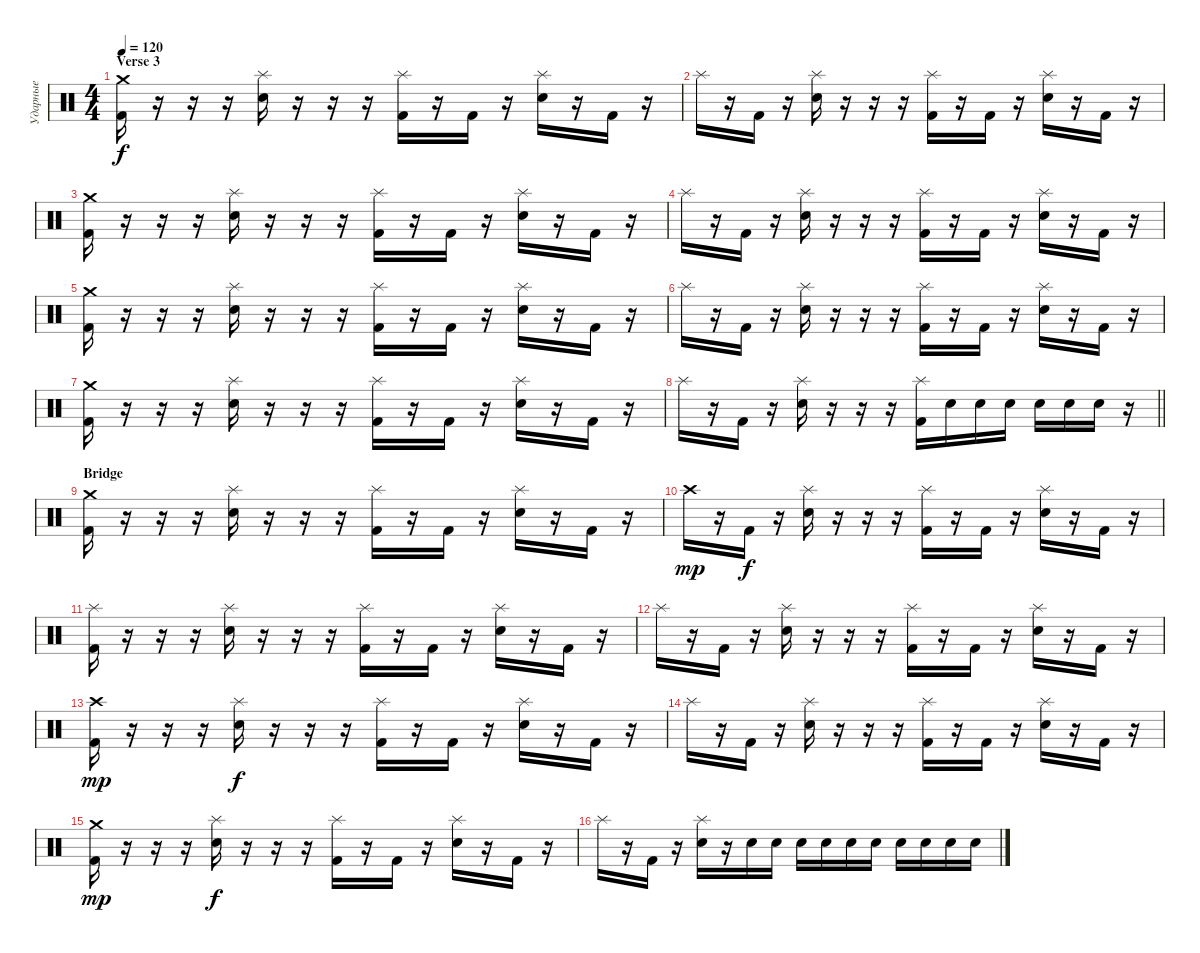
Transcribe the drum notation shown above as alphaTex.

\track ("Ударные" "Ударные") {instrument percussion}
\staff {score}
\articulation defaults
\ts (4 4)
\section ("" "Verse 3")
\tempo 120
\clef neutral
\ks c
("Kick (hit) 2" "Crash medium (hit)").16{dy f volume 12} r.16 r.16 r.16 ("Splash (hit)" "Snare (hit) 2").16 r.16 r.16 r.16 ("Kick (hit) 2" "Splash (hit)").16 r.16 "Kick (hit) 2".16 r.16 ("Splash (hit)" "Snare (hit) 2").16 r.16 "Kick (hit) 2".16 r.16 |
"Splash (hit)".16 r.16 "Kick (hit) 2".16 r.16 ("Splash (hit)" "Snare (hit) 2").16 r.16 r.16 r.16 ("Kick (hit) 2" "Splash (hit)").16 r.16 "Kick (hit) 2".16 r.16 ("Splash (hit)" "Snare (hit) 2").16 r.16 "Kick (hit) 2".16 r.16 |
("Kick (hit) 2" "Crash medium (hit)").16 r.16 r.16 r.16 ("Splash (hit)" "Snare (hit) 2").16 r.16 r.16 r.16 ("Kick (hit) 2" "Splash (hit)").16 r.16 "Kick (hit) 2".16 r.16 ("Splash (hit)" "Snare (hit) 2").16 r.16 "Kick (hit) 2".16 r.16 |
"Splash (hit)".16 r.16 "Kick (hit) 2".16 r.16 ("Splash (hit)" "Snare (hit) 2").16 r.16 r.16 r.16 ("Kick (hit) 2" "Splash (hit)").16 r.16 "Kick (hit) 2".16 r.16 ("Splash (hit)" "Snare (hit) 2").16 r.16 "Kick (hit) 2".16 r.16 |
("Kick (hit) 2" "Crash medium (hit)").16 r.16 r.16 r.16 ("Splash (hit)" "Snare (hit) 2").16 r.16 r.16 r.16 ("Kick (hit) 2" "Splash (hit)").16 r.16 "Kick (hit) 2".16 r.16 ("Splash (hit)" "Snare (hit) 2").16 r.16 "Kick (hit) 2".16 r.16 |
"Splash (hit)".16 r.16 "Kick (hit) 2".16 r.16 ("Splash (hit)" "Snare (hit) 2").16 r.16 r.16 r.16 ("Kick (hit) 2" "Splash (hit)").16 r.16 "Kick (hit) 2".16 r.16 ("Splash (hit)" "Snare (hit) 2").16 r.16 "Kick (hit) 2".16 r.16 |
("Kick (hit) 2" "Crash medium (hit)").16 r.16 r.16 r.16 ("Splash (hit)" "Snare (hit) 2").16 r.16 r.16 r.16 ("Kick (hit) 2" "Splash (hit)").16 r.16 "Kick (hit) 2".16 r.16 ("Splash (hit)" "Snare (hit) 2").16 r.16 "Kick (hit) 2".16 r.16 |
\barLineRight lightlight "Splash (hit)".16
r.16 "Kick (hit) 2".16 r.16 ("Splash (hit)" "Snare (hit) 2").16 r.16 r.16 r.16 ("Kick (hit) 2" "Splash (hit)").16 "Snare (hit) 2".16 "Snare (hit) 2".16 "Snare (hit) 2".16 "Snare (hit) 2".16 "Snare (hit) 2".16 "Snare (hit) 2".16 r.16 |
\section ("" "Bridge")
("Kick (hit) 2" "Crash medium (hit)").16 r.16 r.16 r.16 ("Splash (hit)" "Snare (hit) 2").16 r.16 r.16 r.16 ("Kick (hit) 2" "Splash (hit)").16 r.16 "Kick (hit) 2".16 r.16 ("Splash (hit)" "Snare (hit) 2").16 r.16 "Kick (hit) 2".16 r.16 |
"Crash high (hit)".16{dy mp} r.16 "Kick (hit) 2".16{dy f} r.16 ("Splash (hit)" "Snare (hit) 2").16 r.16 r.16 r.16 ("Kick (hit) 2" "Splash (hit)").16 r.16 "Kick (hit) 2".16 r.16 ("Splash (hit)" "Snare (hit) 2").16 r.16 "Kick (hit) 2".16 r.16 |
("Kick (hit) 2" "Splash (hit)").16 r.16 r.16 r.16 ("Splash (hit)" "Snare (hit) 2").16 r.16 r.16 r.16 ("Kick (hit) 2" "Splash (hit)").16 r.16 "Kick (hit) 2".16 r.16 ("Splash (hit)" "Snare (hit) 2").16 r.16 "Kick (hit) 2".16 r.16 |
"Splash (hit)".16 r.16 "Kick (hit) 2".16 r.16 ("Splash (hit)" "Snare (hit) 2").16 r.16 r.16 r.16 ("Kick (hit) 2" "Splash (hit)").16 r.16 "Kick (hit) 2".16 r.16 ("Splash (hit)" "Snare (hit) 2").16 r.16 "Kick (hit) 2".16 r.16 |
("Kick (hit) 2" "Crash high (hit)").16{dy mp} r.16 r.16 r.16 ("Splash (hit)" "Snare (hit) 2").16{dy f} r.16 r.16 r.16 ("Kick (hit) 2" "Splash (hit)").16 r.16 "Kick (hit) 2".16 r.16 ("Splash (hit)" "Snare (hit) 2").16 r.16 "Kick (hit) 2".16 r.16 |
"Splash (hit)".16 r.16 "Kick (hit) 2".16 r.16 ("Splash (hit)" "Snare (hit) 2").16 r.16 r.16 r.16 ("Kick (hit) 2" "Splash (hit)").16 r.16 "Kick (hit) 2".16 r.16 ("Splash (hit)" "Snare (hit) 2").16 r.16 "Kick (hit) 2".16 r.16 |
("Kick (hit) 2" "Crash medium (hit)").16{dy mp} r.16 r.16 r.16 ("Splash (hit)" "Snare (hit) 2").16{dy f} r.16 r.16 r.16 ("Kick (hit) 2" "Splash (hit)").16 r.16 "Kick (hit) 2".16 r.16 ("Splash (hit)" "Snare (hit) 2").16 r.16 "Kick (hit) 2".16 r.16 |
"Splash (hit)".16 r.16 "Kick (hit) 2".16 r.16 ("Splash (hit)" "Snare (hit) 2").16 r.16 "Snare (hit) 2".16 "Snare (hit) 2".16 "Snare (hit) 2".16 "Snare (hit) 2".16 "Snare (hit) 2".16 "Snare (hit) 2".16 "Snare (hit) 2".16 "Snare (hit) 2".16 "Snare (hit) 2".16 "Snare (hit) 2".16
